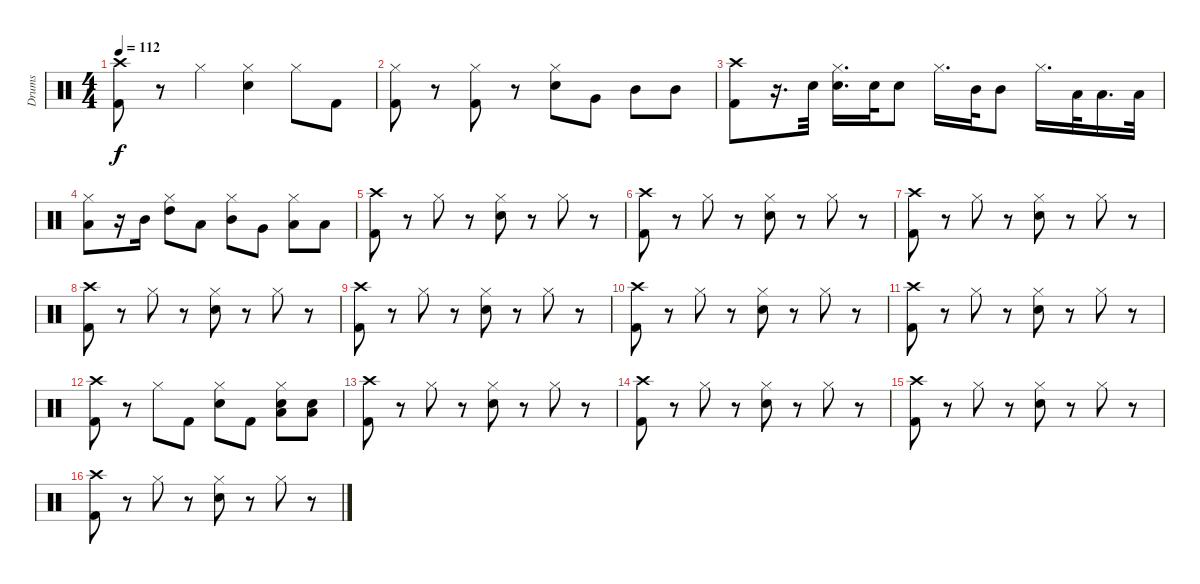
\track ("Drums" "Drums") {instrument percussion}
\staff {score}
\articulation defaults
\ts (4 4)
\tempo 112
\clef neutral
\ks c
("Crash high (hit)" "Kick (hit) 2").8{dy f} r.8 "Hi-Hat (closed)".4 ("Hi-Hat (closed)" "Electric Snare (hit)").4 "Hi-Hat (closed)".8 "Kick (hit) 2".8 |
("Hi-Hat (closed)" "Kick (hit) 2").8 r.8 ("Hi-Hat (closed)" "Kick (hit) 2").8 r.8 ("Hi-Hat (closed)" "Electric Snare (hit)").8 "Very Low Tom (hit)".8 "Mid Tom (hit)".8 "Mid Tom (hit)".8 |
("Crash high (hit)" "Kick (hit) 2").8 r.16{d} "Electric Snare (hit)".32 ("Electric Snare (hit)" "Hi-Hat (closed)").16{d} "Electric Snare (hit)".32 "Electric Snare (hit)".8 "Hi-Hat (closed)".16{d} "Mid Tom (hit)".32 "Mid Tom (hit)".8 "Hi-Hat (closed)".16{d} "Low Tom (hit)".32 "Low Tom (hit)".16{d} "Low Tom (hit)".32 |
("Low Tom (hit)" "Hi-Hat (closed)").8 r.16 "Mid Tom (hit)".16 ("High Tom (hit)" "Hi-Hat (closed)").8 "Low Tom (hit)".8 ("Mid Tom (hit)" "Hi-Hat (closed)").8 "Very Low Tom (hit)".8 ("Low Tom (hit)" "Hi-Hat (closed)").8 "Low Floor Tom (hit)".8 |
("Kick (hit) 2" "Crash high (hit)").8 r.8 "Hi-Hat (closed)".8 r.8 ("Electric Snare (hit)" "Hi-Hat (closed)").8 r.8 "Hi-Hat (closed)".8 r.8 |
("Kick (hit) 2" "Crash high (hit)").8 r.8 "Hi-Hat (closed)".8 r.8 ("Electric Snare (hit)" "Hi-Hat (closed)").8 r.8 "Hi-Hat (closed)".8 r.8 |
("Kick (hit) 2" "Crash high (hit)").8 r.8 "Hi-Hat (closed)".8 r.8 ("Hi-Hat (closed)" "Electric Snare (hit)").8 r.8 "Hi-Hat (closed)".8 r.8 |
("Kick (hit) 2" "Crash high (hit)").8 r.8 "Hi-Hat (closed)".8 r.8 ("Electric Snare (hit)" "Hi-Hat (closed)").8 r.8 "Hi-Hat (closed)".8 r.8 |
("Kick (hit) 2" "Crash high (hit)").8 r.8 "Hi-Hat (closed)".8 r.8 ("Hi-Hat (closed)" "Electric Snare (hit)").8 r.8 "Hi-Hat (closed)".8 r.8 |
("Kick (hit) 2" "Crash high (hit)").8 r.8 "Hi-Hat (closed)".8 r.8 ("Electric Snare (hit)" "Hi-Hat (closed)").8 r.8 "Hi-Hat (closed)".8 r.8 |
("Kick (hit) 2" "Crash high (hit)").8 r.8 "Hi-Hat (closed)".8 r.8 ("Hi-Hat (closed)" "Electric Snare (hit)").8 r.8 "Hi-Hat (closed)".8 r.8 |
("Kick (hit) 2" "Crash high (hit)").8 r.8 "Hi-Hat (closed)".8 "Kick (hit) 2".8 ("Electric Snare (hit)" "Hi-Hat (closed)").8 "Kick (hit) 2".8 ("Low Tom (hit)" "Hi-Hat (closed)" "Electric Snare (hit)").8 ("Low Tom (hit)" "Electric Snare (hit)").8 |
("Crash high (hit)" "Kick (hit) 2").8 r.8 "Hi-Hat (closed)".8 r.8 ("Hi-Hat (closed)" "Electric Snare (hit)").8 r.8 "Hi-Hat (closed)".8 r.8 |
("Crash high (hit)" "Kick (hit) 2").8 r.8 "Hi-Hat (closed)".8 r.8 ("Hi-Hat (closed)" "Electric Snare (hit)").8 r.8 "Hi-Hat (closed)".8 r.8 |
("Crash high (hit)" "Kick (hit) 2").8 r.8 "Hi-Hat (closed)".8 r.8 ("Electric Snare (hit)" "Hi-Hat (closed)").8 r.8 "Hi-Hat (closed)".8 r.8 |
("Kick (hit) 2" "Crash high (hit)").8 r.8 "Hi-Hat (closed)".8 r.8 ("Electric Snare (hit)" "Hi-Hat (closed)").8 r.8 "Hi-Hat (closed)".8 r.8
